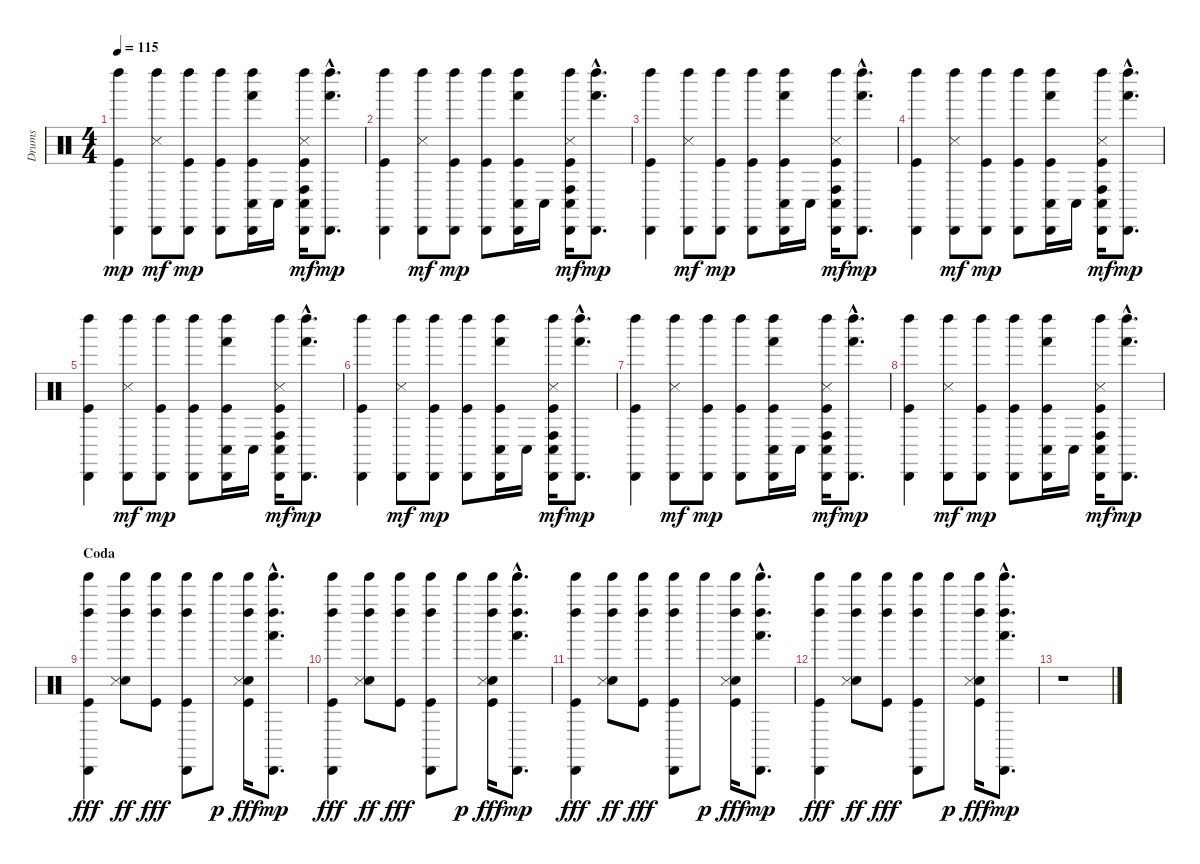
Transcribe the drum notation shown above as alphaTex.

\track ("Drums" "Drums") {instrument percussion}
\staff {score}
\articulation defaults
\ts (4 4)
\tempo 115
\clef neutral
\ks c
("Left Maraca (hit)" "Cabasa (hit)" "Kick (hit)").4{dy mp} ("Left Maraca (hit)" "Cabasa (hit)" "Snare (side stick) 3").8{dy mf} ("Left Maraca (hit)" "Cabasa (hit)" "Kick (hit)").8{dy mp} ("Left Maraca (hit)" "Cabasa (hit)" "Kick (hit)").8 ("Left Maraca (hit)" "Cabasa (hit)" "Conga low (hit)" "Hand (hit)" "Kick (hit)").16 "Conga low (hit)".16 ("Left Maraca (hit)" "Cabasa (hit)" "Conga low (hit)" "Conga high (hit)" "Snare (side stick) 3" "Kick (hit)").16{dy mf} ("Left Maraca (hit)"{hac} "Cabasa (hit)"{hac} "Hand (hit)"{hac}).8{d dy mp} |
("Left Maraca (hit)" "Cabasa (hit)" "Kick (hit)").4 ("Left Maraca (hit)" "Cabasa (hit)" "Snare (side stick) 3").8{dy mf} ("Left Maraca (hit)" "Cabasa (hit)" "Kick (hit)").8{dy mp} ("Left Maraca (hit)" "Cabasa (hit)" "Kick (hit)").8 ("Left Maraca (hit)" "Cabasa (hit)" "Conga low (hit)" "Hand (hit)" "Kick (hit)").16 "Conga low (hit)".16 ("Left Maraca (hit)" "Cabasa (hit)" "Conga low (hit)" "Conga high (hit)" "Snare (side stick) 3" "Kick (hit)").16{dy mf} ("Left Maraca (hit)"{hac} "Cabasa (hit)"{hac} "Hand (hit)"{hac}).8{d dy mp} |
("Left Maraca (hit)" "Cabasa (hit)" "Kick (hit)").4 ("Left Maraca (hit)" "Cabasa (hit)" "Snare (side stick) 3").8{dy mf} ("Left Maraca (hit)" "Cabasa (hit)" "Kick (hit)").8{dy mp} ("Left Maraca (hit)" "Cabasa (hit)" "Kick (hit)").8 ("Left Maraca (hit)" "Cabasa (hit)" "Conga low (hit)" "Hand (hit)" "Kick (hit)").16 "Conga low (hit)".16 ("Left Maraca (hit)" "Cabasa (hit)" "Conga low (hit)" "Conga high (hit)" "Snare (side stick) 3" "Kick (hit)").16{dy mf} ("Left Maraca (hit)"{hac} "Cabasa (hit)"{hac} "Hand (hit)"{hac}).8{d dy mp} |
("Left Maraca (hit)" "Cabasa (hit)" "Kick (hit)").4 ("Left Maraca (hit)" "Cabasa (hit)" "Snare (side stick) 3").8{dy mf} ("Left Maraca (hit)" "Cabasa (hit)" "Kick (hit)").8{dy mp} ("Left Maraca (hit)" "Cabasa (hit)" "Kick (hit)").8 ("Left Maraca (hit)" "Cabasa (hit)" "Conga low (hit)" "Hand (hit)" "Kick (hit)").16 "Conga low (hit)".16 ("Left Maraca (hit)" "Cabasa (hit)" "Conga low (hit)" "Conga high (hit)" "Snare (side stick) 3" "Kick (hit)").16{dy mf} ("Left Maraca (hit)"{hac} "Cabasa (hit)"{hac} "Hand (hit)"{hac}).8{d dy mp} |
("Left Maraca (hit)" "Cabasa (hit)" "Kick (hit)").4 ("Left Maraca (hit)" "Cabasa (hit)" "Snare (side stick) 3").8{dy mf} ("Left Maraca (hit)" "Cabasa (hit)" "Kick (hit)").8{dy mp} ("Left Maraca (hit)" "Cabasa (hit)" "Kick (hit)").8 ("Left Maraca (hit)" "Cabasa (hit)" "Conga low (hit)" "Hand (hit)" "Kick (hit)").16 "Conga low (hit)".16 ("Left Maraca (hit)" "Cabasa (hit)" "Conga low (hit)" "Conga high (hit)" "Snare (side stick) 3" "Kick (hit)").16{dy mf} ("Left Maraca (hit)"{hac} "Cabasa (hit)"{hac} "Hand (hit)"{hac}).8{d dy mp} |
("Left Maraca (hit)" "Cabasa (hit)" "Kick (hit)").4 ("Left Maraca (hit)" "Cabasa (hit)" "Snare (side stick) 3").8{dy mf} ("Left Maraca (hit)" "Cabasa (hit)" "Kick (hit)").8{dy mp} ("Left Maraca (hit)" "Cabasa (hit)" "Kick (hit)").8 ("Left Maraca (hit)" "Cabasa (hit)" "Conga low (hit)" "Hand (hit)" "Kick (hit)").16 "Conga low (hit)".16 ("Left Maraca (hit)" "Cabasa (hit)" "Conga low (hit)" "Conga high (hit)" "Snare (side stick) 3" "Kick (hit)").16{dy mf} ("Left Maraca (hit)"{hac} "Cabasa (hit)"{hac} "Hand (hit)"{hac}).8{d dy mp} |
("Left Maraca (hit)" "Cabasa (hit)" "Kick (hit)").4 ("Left Maraca (hit)" "Cabasa (hit)" "Snare (side stick) 3").8{dy mf} ("Left Maraca (hit)" "Cabasa (hit)" "Kick (hit)").8{dy mp} ("Left Maraca (hit)" "Cabasa (hit)" "Kick (hit)").8 ("Left Maraca (hit)" "Cabasa (hit)" "Conga low (hit)" "Hand (hit)" "Kick (hit)").16 "Conga low (hit)".16 ("Left Maraca (hit)" "Cabasa (hit)" "Conga low (hit)" "Conga high (hit)" "Snare (side stick) 3" "Kick (hit)").16{dy mf} ("Left Maraca (hit)"{hac} "Cabasa (hit)"{hac} "Hand (hit)"{hac}).8{d dy mp} |
("Left Maraca (hit)" "Cabasa (hit)" "Kick (hit)").4 ("Left Maraca (hit)" "Cabasa (hit)" "Snare (side stick) 3").8{dy mf} ("Left Maraca (hit)" "Cabasa (hit)" "Kick (hit)").8{dy mp} ("Left Maraca (hit)" "Cabasa (hit)" "Kick (hit)").8 ("Left Maraca (hit)" "Cabasa (hit)" "Conga low (hit)" "Hand (hit)" "Kick (hit)").16 "Conga low (hit)".16 ("Left Maraca (hit)" "Cabasa (hit)" "Conga low (hit)" "Conga high (hit)" "Snare (side stick) 3" "Kick (hit)").16{dy mf} ("Left Maraca (hit)"{hac} "Cabasa (hit)"{hac} "Hand (hit)"{hac}).8{d dy mp} |
\section ("" "Coda")
("Tinkle Bell (hit)" "Left Maraca (hit)" "Cabasa (hit)" "Kick (hit)").4{dy fff} ("Tinkle Bell (hit)" "Left Maraca (hit)" "Hand Clap (hit)" "Snare (side stick) 3").8{dy ff} ("Tinkle Bell (hit)" "Left Maraca (hit)" "Kick (hit)").8{dy fff} ("Tinkle Bell (hit)" "Left Maraca (hit)" "Cabasa (hit)" "Kick (hit)").8 "Tinkle Bell (hit)".8{dy p} ("Tinkle Bell (hit)" "Left Maraca (hit)" "Hand Clap (hit)" "Snare (side stick) 3" "Kick (hit)").16{dy fff} ("Tinkle Bell (hit)"{hac} "Left Maraca (hit)"{hac} "Cabasa (hit)"{hac} "Hand (hit)"{hac}).8{d dy mp} |
("Tinkle Bell (hit)" "Left Maraca (hit)" "Cabasa (hit)" "Kick (hit)").4{dy fff} ("Tinkle Bell (hit)" "Left Maraca (hit)" "Hand Clap (hit)" "Snare (side stick) 3").8{dy ff} ("Tinkle Bell (hit)" "Left Maraca (hit)" "Kick (hit)").8{dy fff} ("Tinkle Bell (hit)" "Left Maraca (hit)" "Cabasa (hit)" "Kick (hit)").8 "Tinkle Bell (hit)".8{dy p} ("Tinkle Bell (hit)" "Left Maraca (hit)" "Hand Clap (hit)" "Snare (side stick) 3" "Kick (hit)").16{dy fff} ("Tinkle Bell (hit)"{hac} "Left Maraca (hit)"{hac} "Cabasa (hit)"{hac} "Hand (hit)"{hac}).8{d dy mp} |
("Tinkle Bell (hit)" "Left Maraca (hit)" "Cabasa (hit)" "Kick (hit)").4{dy fff} ("Tinkle Bell (hit)" "Left Maraca (hit)" "Hand Clap (hit)" "Snare (side stick) 3").8{dy ff} ("Tinkle Bell (hit)" "Left Maraca (hit)" "Kick (hit)").8{dy fff} ("Tinkle Bell (hit)" "Left Maraca (hit)" "Cabasa (hit)" "Kick (hit)").8 "Tinkle Bell (hit)".8{dy p} ("Tinkle Bell (hit)" "Left Maraca (hit)" "Hand Clap (hit)" "Snare (side stick) 3" "Kick (hit)").16{dy fff} ("Tinkle Bell (hit)"{hac} "Left Maraca (hit)"{hac} "Cabasa (hit)"{hac} "Hand (hit)"{hac}).8{d dy mp} |
("Tinkle Bell (hit)" "Left Maraca (hit)" "Cabasa (hit)" "Kick (hit)").4{dy fff} ("Tinkle Bell (hit)" "Left Maraca (hit)" "Hand Clap (hit)" "Snare (side stick) 3").8{dy ff} ("Tinkle Bell (hit)" "Left Maraca (hit)" "Kick (hit)").8{dy fff} ("Tinkle Bell (hit)" "Left Maraca (hit)" "Cabasa (hit)" "Kick (hit)").8 "Tinkle Bell (hit)".8{dy p} ("Tinkle Bell (hit)" "Left Maraca (hit)" "Hand Clap (hit)" "Snare (side stick) 3" "Kick (hit)").16{dy fff} ("Tinkle Bell (hit)"{hac} "Left Maraca (hit)"{hac} "Cabasa (hit)"{hac} "Hand (hit)"{hac}).8{d dy mp} |
r.1
